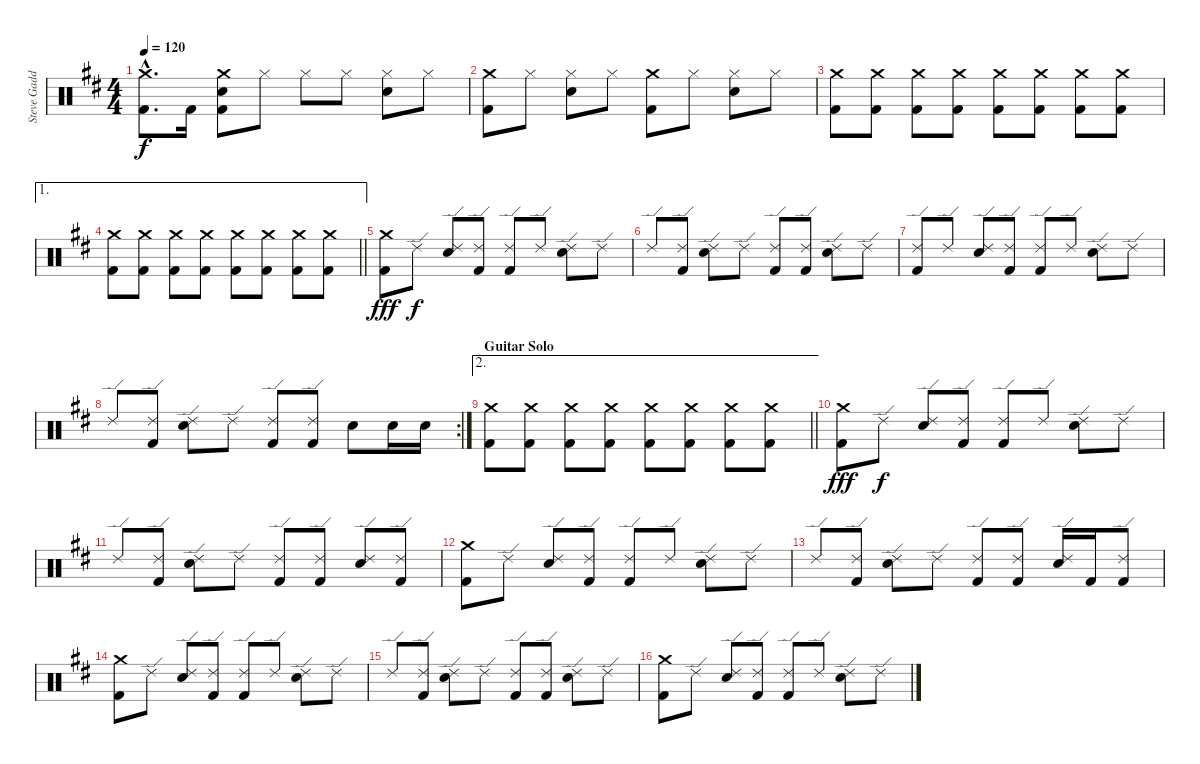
\track ("Steve Gadd Drums" "Steve Gadd") {instrument percussion}
\staff {score}
\articulation defaults
\ts (4 4)
\tempo 120
\clef neutral
\ks d
("Crash medium (hit)"{hac} "Kick (hit) 2"{hac}).8{d dy f} "Kick (hit) 2".16 ("Crash medium (hit)" "Snare (hit) 2" "Kick (hit) 2").8 "Hi-Hat (closed)".8 "Hi-Hat (closed)".8 "Hi-Hat (closed)".8 ("Hi-Hat (closed)" "Snare (hit) 2").8 "Hi-Hat (closed)".8 |
("Crash medium (hit)" "Kick (hit) 2").8 "Hi-Hat (closed)".8 ("Hi-Hat (closed)" "Snare (hit) 2").8 "Hi-Hat (closed)".8 ("Crash medium (hit)" "Kick (hit) 2").8 "Hi-Hat (closed)".8 ("Hi-Hat (closed)" "Snare (hit) 2").8 "Hi-Hat (closed)".8 |
("Crash medium (hit)" "Kick (hit) 2").8 ("Crash medium (hit)" "Kick (hit) 2").8 ("Crash medium (hit)" "Kick (hit) 2").8 ("Crash medium (hit)" "Kick (hit) 2").8 ("Crash medium (hit)" "Kick (hit) 2").8 ("Crash medium (hit)" "Kick (hit) 2").8 ("Crash medium (hit)" "Kick (hit) 2").8 ("Crash medium (hit)" "Kick (hit) 2").8 |
\ae 1
\barLineRight lightlight
("Crash medium (hit)" "Kick (hit) 2").8 ("Crash medium (hit)" "Kick (hit) 2").8 ("Crash medium (hit)" "Kick (hit) 2").8 ("Crash medium (hit)" "Kick (hit) 2").8 ("Crash medium (hit)" "Kick (hit) 2").8 ("Crash medium (hit)" "Kick (hit) 2").8 ("Crash medium (hit)" "Kick (hit) 2").8 ("Crash medium (hit)" "Kick (hit) 2").8 |
("Crash medium (hit)" "Kick (hit) 2").8{dy fff} "Ride (edge) 2".8{dy f} ("Ride (edge) 2" "Snare (hit) 2").8 ("Ride (edge) 2" "Kick (hit) 2").8 ("Ride (edge) 2" "Kick (hit) 2").8 "Ride (edge) 2".8 ("Ride (edge) 2" "Snare (hit) 2").8 "Ride (edge) 2".8 |
"Ride (edge) 2".8 ("Ride (edge) 2" "Kick (hit) 2").8 ("Ride (edge) 2" "Snare (hit) 2").8 "Ride (edge) 2".8 ("Ride (edge) 2" "Kick (hit) 2").8 ("Ride (edge) 2" "Kick (hit) 2").8 ("Ride (edge) 2" "Snare (hit) 2").8 "Ride (edge) 2".8 |
("Ride (edge) 2" "Kick (hit) 2").8 "Ride (edge) 2".8 ("Ride (edge) 2" "Snare (hit) 2").8 ("Ride (edge) 2" "Kick (hit) 2").8 ("Ride (edge) 2" "Kick (hit) 2").8 "Ride (edge) 2".8 ("Ride (edge) 2" "Snare (hit) 2").8 "Ride (edge) 2".8 |
\rc 2 "Ride (edge) 2".8
("Ride (edge) 2" "Kick (hit) 2").8 ("Ride (edge) 2" "Snare (hit) 2").8 "Ride (edge) 2".8 ("Ride (edge) 2" "Kick (hit) 2").8 ("Ride (edge) 2" "Kick (hit) 2").8 "Snare (hit) 2".8 "Snare (hit) 2".16 "Snare (hit) 2".16 |
\ae 2
\section ("" "Guitar Solo")
\barLineRight lightlight
("Crash medium (hit)" "Kick (hit) 2").8 ("Crash medium (hit)" "Kick (hit) 2").8 ("Crash medium (hit)" "Kick (hit) 2").8 ("Crash medium (hit)" "Kick (hit) 2").8 ("Crash medium (hit)" "Kick (hit) 2").8 ("Crash medium (hit)" "Kick (hit) 2").8 ("Crash medium (hit)" "Kick (hit) 2").8 ("Crash medium (hit)" "Kick (hit) 2").8 |
("Crash medium (hit)" "Kick (hit) 2").8{dy fff} "Ride (edge) 2".8{dy f} ("Ride (edge) 2" "Snare (hit) 2").8 ("Ride (edge) 2" "Kick (hit) 2").8 ("Ride (edge) 2" "Kick (hit) 2").8 "Ride (edge) 2".8 ("Ride (edge) 2" "Snare (hit) 2").8 "Ride (edge) 2".8 |
"Ride (edge) 2".8 ("Ride (edge) 2" "Kick (hit) 2").8 ("Ride (edge) 2" "Snare (hit) 2").8 "Ride (edge) 2".8 ("Ride (edge) 2" "Kick (hit) 2").8 ("Ride (edge) 2" "Kick (hit) 2").8 ("Ride (edge) 2" "Snare (hit) 2").8 ("Ride (edge) 2" "Kick (hit) 2").8 |
("Crash medium (hit)" "Kick (hit) 2").8 "Ride (edge) 2".8 ("Ride (edge) 2" "Snare (hit) 2").8 ("Ride (edge) 2" "Kick (hit) 2").8 ("Ride (edge) 2" "Kick (hit) 2").8 "Ride (edge) 2".8 ("Ride (edge) 2" "Snare (hit) 2").8 "Ride (edge) 2".8 |
"Ride (edge) 2".8 ("Ride (edge) 2" "Kick (hit) 2").8 ("Ride (edge) 2" "Snare (hit) 2").8 "Ride (edge) 2".8 ("Ride (edge) 2" "Kick (hit) 2").8 ("Ride (edge) 2" "Kick (hit) 2").8 ("Ride (edge) 2" "Snare (hit) 2").16 "Kick (hit) 2".16 ("Ride (edge) 2" "Kick (hit) 2").8 |
("Crash medium (hit)" "Kick (hit) 2").8 "Ride (edge) 2".8 ("Ride (edge) 2" "Snare (hit) 2").8 ("Ride (edge) 2" "Kick (hit) 2").8 ("Ride (edge) 2" "Kick (hit) 2").8 "Ride (edge) 2".8 ("Ride (edge) 2" "Snare (hit) 2").8 "Ride (edge) 2".8 |
"Ride (edge) 2".8 ("Ride (edge) 2" "Kick (hit) 2").8 ("Ride (edge) 2" "Snare (hit) 2").8 "Ride (edge) 2".8 ("Ride (edge) 2" "Kick (hit) 2").8 ("Ride (edge) 2" "Kick (hit) 2").8 ("Ride (edge) 2" "Snare (hit) 2").8 "Ride (edge) 2".8 |
("Crash medium (hit)" "Kick (hit) 2").8 "Ride (edge) 2".8 ("Ride (edge) 2" "Snare (hit) 2").8 ("Ride (edge) 2" "Kick (hit) 2").8 ("Ride (edge) 2" "Kick (hit) 2").8 "Ride (edge) 2".8 ("Ride (edge) 2" "Snare (hit) 2").8 "Ride (edge) 2".8
